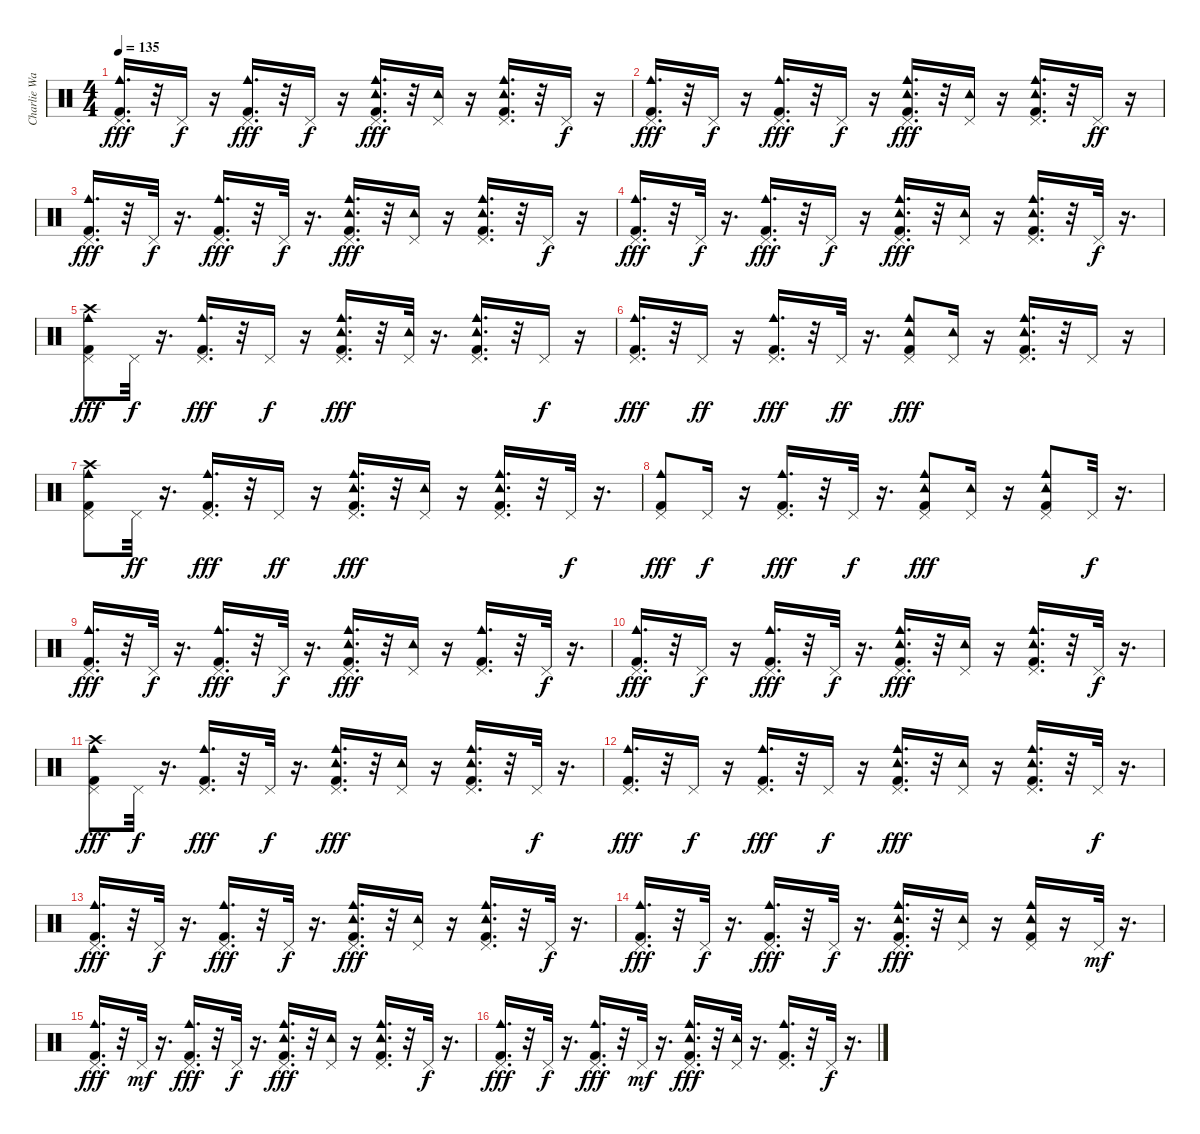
\track ("Charlie Watts - Drums" "Charlie Wa") {instrument percussion}
\staff {score}
\articulation defaults
\ts (4 4)
\tempo 135
\clef neutral
\ks c
("Kick (hit) 2" "Pedal Hi-Hat (hit)" "Cowbell medium (hit)").16{d dy fff} r.32 "Pedal Hi-Hat (hit)".16{dy f} r.16 ("Kick (hit) 2" "Pedal Hi-Hat (hit)" "Cowbell medium (hit)").16{d dy fff} r.32 "Pedal Hi-Hat (hit)".16{dy f} r.16 ("Kick (hit) 2" "Pedal Hi-Hat (hit)" "Tambourine (hit)" "Cowbell medium (hit)").16{d dy fff} r.32 ("Pedal Hi-Hat (hit)" "Tambourine (hit)").16 r.16 ("Kick (hit) 2" "Pedal Hi-Hat (hit)" "Tambourine (hit)" "Cowbell medium (hit)").16{d} r.32 "Pedal Hi-Hat (hit)".16{dy f} r.16 |
("Kick (hit) 2" "Pedal Hi-Hat (hit)" "Cowbell medium (hit)").16{d dy fff} r.32 "Pedal Hi-Hat (hit)".16{dy f} r.16 ("Kick (hit) 2" "Pedal Hi-Hat (hit)" "Cowbell medium (hit)").16{d dy fff} r.32 "Pedal Hi-Hat (hit)".16{dy f} r.16 ("Kick (hit) 2" "Pedal Hi-Hat (hit)" "Tambourine (hit)" "Cowbell medium (hit)").16{d dy fff} r.32 ("Pedal Hi-Hat (hit)" "Tambourine (hit)").16 r.16 ("Kick (hit) 2" "Pedal Hi-Hat (hit)" "Tambourine (hit)" "Cowbell medium (hit)").16{d} r.32 "Pedal Hi-Hat (hit)".16{dy ff} r.16 |
("Kick (hit) 2" "Pedal Hi-Hat (hit)" "Cowbell medium (hit)").16{d dy fff} r.32 "Pedal Hi-Hat (hit)".32{dy f} r.16{d} ("Kick (hit) 2" "Pedal Hi-Hat (hit)" "Cowbell medium (hit)").16{d dy fff} r.32 "Pedal Hi-Hat (hit)".32{dy f} r.16{d} ("Kick (hit) 2" "Pedal Hi-Hat (hit)" "Tambourine (hit)" "Cowbell medium (hit)").16{d dy fff} r.32 ("Pedal Hi-Hat (hit)" "Tambourine (hit)").16 r.16 ("Kick (hit) 2" "Pedal Hi-Hat (hit)" "Tambourine (hit)" "Cowbell medium (hit)").16{d} r.32 "Pedal Hi-Hat (hit)".16{dy f} r.16 |
("Kick (hit) 2" "Pedal Hi-Hat (hit)" "Cowbell medium (hit)").16{d dy fff} r.32 "Pedal Hi-Hat (hit)".32{dy f} r.16{d} ("Kick (hit) 2" "Pedal Hi-Hat (hit)" "Cowbell medium (hit)").16{d dy fff} r.32 "Pedal Hi-Hat (hit)".16{dy f} r.16 ("Kick (hit) 2" "Pedal Hi-Hat (hit)" "Tambourine (hit)" "Cowbell medium (hit)").16{d dy fff} r.32 ("Pedal Hi-Hat (hit)" "Tambourine (hit)").16 r.16 ("Kick (hit) 2" "Pedal Hi-Hat (hit)" "Tambourine (hit)" "Cowbell medium (hit)").16{d} r.32 "Pedal Hi-Hat (hit)".32{dy f} r.16{d} |
("Kick (hit) 2" "Pedal Hi-Hat (hit)" "Crash high (hit)" "Cowbell medium (hit)").8{dy fff} "Pedal Hi-Hat (hit)".32{dy f} r.16{d} ("Kick (hit) 2" "Pedal Hi-Hat (hit)" "Cowbell medium (hit)").16{d dy fff} r.32 "Pedal Hi-Hat (hit)".16{dy f} r.16 ("Kick (hit) 2" "Pedal Hi-Hat (hit)" "Tambourine (hit)" "Cowbell medium (hit)").16{d dy fff} r.32 ("Pedal Hi-Hat (hit)" "Tambourine (hit)").32 r.16{d} ("Kick (hit) 2" "Pedal Hi-Hat (hit)" "Tambourine (hit)" "Cowbell medium (hit)").16{d} r.32 "Pedal Hi-Hat (hit)".16{dy f} r.16 |
("Kick (hit) 2" "Pedal Hi-Hat (hit)" "Cowbell medium (hit)").16{d dy fff} r.32 "Pedal Hi-Hat (hit)".16{dy ff} r.16 ("Kick (hit) 2" "Pedal Hi-Hat (hit)" "Cowbell medium (hit)").16{d dy fff} r.32 "Pedal Hi-Hat (hit)".32{dy ff} r.16{d} ("Kick (hit) 2" "Pedal Hi-Hat (hit)" "Tambourine (hit)" "Cowbell medium (hit)").8{dy fff} ("Pedal Hi-Hat (hit)" "Tambourine (hit)").16 r.16 ("Kick (hit) 2" "Pedal Hi-Hat (hit)" "Tambourine (hit)" "Cowbell medium (hit)").16{d} r.32 "Pedal Hi-Hat (hit)".16 r.16 |
("Kick (hit) 2" "Pedal Hi-Hat (hit)" "Crash high (hit)" "Cowbell medium (hit)").8 "Pedal Hi-Hat (hit)".32{dy ff} r.16{d} ("Kick (hit) 2" "Pedal Hi-Hat (hit)" "Cowbell medium (hit)").16{d dy fff} r.32 "Pedal Hi-Hat (hit)".16{dy ff} r.16 ("Kick (hit) 2" "Pedal Hi-Hat (hit)" "Tambourine (hit)" "Cowbell medium (hit)").16{d dy fff} r.32 ("Pedal Hi-Hat (hit)" "Tambourine (hit)").16 r.16 ("Kick (hit) 2" "Pedal Hi-Hat (hit)" "Tambourine (hit)" "Cowbell medium (hit)").16{d} r.32 "Pedal Hi-Hat (hit)".32{dy f} r.16{d} |
("Kick (hit) 2" "Pedal Hi-Hat (hit)" "Cowbell medium (hit)").8{dy fff} "Pedal Hi-Hat (hit)".16{dy f} r.16 ("Kick (hit) 2" "Pedal Hi-Hat (hit)" "Cowbell medium (hit)").16{d dy fff} r.32 "Pedal Hi-Hat (hit)".32{dy f} r.16{d} ("Kick (hit) 2" "Pedal Hi-Hat (hit)" "Tambourine (hit)" "Cowbell medium (hit)").8{dy fff} ("Pedal Hi-Hat (hit)" "Tambourine (hit)").16 r.16 ("Kick (hit) 2" "Pedal Hi-Hat (hit)" "Tambourine (hit)" "Cowbell medium (hit)").8 "Pedal Hi-Hat (hit)".32{dy f} r.16{d} |
("Kick (hit) 2" "Pedal Hi-Hat (hit)" "Cowbell medium (hit)").16{d dy fff} r.32 "Pedal Hi-Hat (hit)".32{dy f} r.16{d} ("Kick (hit) 2" "Pedal Hi-Hat (hit)" "Cowbell medium (hit)").16{d dy fff} r.32 "Pedal Hi-Hat (hit)".32{dy f} r.16{d} ("Kick (hit) 2" "Pedal Hi-Hat (hit)" "Tambourine (hit)" "Cowbell medium (hit)").16{d dy fff} r.32 ("Pedal Hi-Hat (hit)" "Tambourine (hit)").16 r.16 ("Kick (hit) 2" "Pedal Hi-Hat (hit)" "Cowbell medium (hit)").16{d} r.32 "Pedal Hi-Hat (hit)".32{dy f} r.16{d} |
("Kick (hit) 2" "Pedal Hi-Hat (hit)" "Cowbell medium (hit)").16{d dy fff} r.32 "Pedal Hi-Hat (hit)".16{dy f} r.16 ("Kick (hit) 2" "Pedal Hi-Hat (hit)" "Cowbell medium (hit)").16{d dy fff} r.32 "Pedal Hi-Hat (hit)".32{dy f} r.16{d} ("Kick (hit) 2" "Pedal Hi-Hat (hit)" "Tambourine (hit)" "Cowbell medium (hit)").16{d dy fff} r.32 ("Pedal Hi-Hat (hit)" "Tambourine (hit)").16 r.16 ("Kick (hit) 2" "Pedal Hi-Hat (hit)" "Tambourine (hit)" "Cowbell medium (hit)").16{d} r.32 "Pedal Hi-Hat (hit)".32{dy f} r.16{d} |
("Kick (hit) 2" "Pedal Hi-Hat (hit)" "Crash high (hit)" "Cowbell medium (hit)").8{dy fff} "Pedal Hi-Hat (hit)".32{dy f} r.16{d} ("Kick (hit) 2" "Pedal Hi-Hat (hit)" "Cowbell medium (hit)").16{d dy fff} r.32 "Pedal Hi-Hat (hit)".32{dy f} r.16{d} ("Kick (hit) 2" "Pedal Hi-Hat (hit)" "Tambourine (hit)" "Cowbell medium (hit)").16{d dy fff} r.32 ("Pedal Hi-Hat (hit)" "Tambourine (hit)").16 r.16 ("Kick (hit) 2" "Pedal Hi-Hat (hit)" "Tambourine (hit)" "Cowbell medium (hit)").16{d} r.32 "Pedal Hi-Hat (hit)".32{dy f} r.16{d} |
("Kick (hit) 2" "Pedal Hi-Hat (hit)" "Cowbell medium (hit)").16{d dy fff} r.32 "Pedal Hi-Hat (hit)".16{dy f} r.16 ("Kick (hit) 2" "Pedal Hi-Hat (hit)" "Cowbell medium (hit)").16{d dy fff} r.32 "Pedal Hi-Hat (hit)".16{dy f} r.16 ("Kick (hit) 2" "Pedal Hi-Hat (hit)" "Tambourine (hit)" "Cowbell medium (hit)").16{d dy fff} r.32 ("Pedal Hi-Hat (hit)" "Tambourine (hit)").16 r.16 ("Kick (hit) 2" "Pedal Hi-Hat (hit)" "Tambourine (hit)" "Cowbell medium (hit)").16{d} r.32 "Pedal Hi-Hat (hit)".32{dy f} r.16{d} |
("Kick (hit) 2" "Pedal Hi-Hat (hit)" "Cowbell medium (hit)").16{d dy fff} r.32 "Pedal Hi-Hat (hit)".32{dy f} r.16{d} ("Kick (hit) 2" "Pedal Hi-Hat (hit)" "Cowbell medium (hit)").16{d dy fff} r.32 "Pedal Hi-Hat (hit)".32{dy f} r.16{d} ("Kick (hit) 2" "Pedal Hi-Hat (hit)" "Tambourine (hit)" "Cowbell medium (hit)").16{d dy fff} r.32 ("Pedal Hi-Hat (hit)" "Tambourine (hit)").16 r.16 ("Kick (hit) 2" "Pedal Hi-Hat (hit)" "Tambourine (hit)" "Cowbell medium (hit)").16{d} r.32 "Pedal Hi-Hat (hit)".32{dy f} r.16{d} |
("Kick (hit) 2" "Pedal Hi-Hat (hit)" "Cowbell medium (hit)").16{d dy fff} r.32 "Pedal Hi-Hat (hit)".32{dy f} r.16{d} ("Kick (hit) 2" "Pedal Hi-Hat (hit)" "Cowbell medium (hit)").16{d dy fff} r.32 "Pedal Hi-Hat (hit)".32{dy f} r.16{d} ("Kick (hit) 2" "Pedal Hi-Hat (hit)" "Tambourine (hit)" "Cowbell medium (hit)").16{d dy fff} r.32 ("Pedal Hi-Hat (hit)" "Tambourine (hit)").16 r.16 ("Kick (hit) 2" "Pedal Hi-Hat (hit)" "Tambourine (hit)" "Cowbell medium (hit)").16 r.16 "Pedal Hi-Hat (hit)".32{dy mf} r.16{d} |
("Kick (hit) 2" "Pedal Hi-Hat (hit)" "Cowbell medium (hit)").16{d dy fff} r.32 "Pedal Hi-Hat (hit)".32{dy mf} r.16{d} ("Kick (hit) 2" "Pedal Hi-Hat (hit)" "Cowbell medium (hit)").16{d dy fff} r.32 "Pedal Hi-Hat (hit)".32{dy f} r.16{d} ("Kick (hit) 2" "Pedal Hi-Hat (hit)" "Tambourine (hit)" "Cowbell medium (hit)").16{d dy fff} r.32 ("Pedal Hi-Hat (hit)" "Tambourine (hit)").16 r.16 ("Kick (hit) 2" "Pedal Hi-Hat (hit)" "Tambourine (hit)" "Cowbell medium (hit)").16{d} r.32 "Pedal Hi-Hat (hit)".32{dy f} r.16{d} |
("Kick (hit) 2" "Pedal Hi-Hat (hit)" "Cowbell medium (hit)").16{d dy fff} r.32 "Pedal Hi-Hat (hit)".32{dy f} r.16{d} ("Kick (hit) 2" "Pedal Hi-Hat (hit)" "Cowbell medium (hit)").16{d dy fff} r.32 "Pedal Hi-Hat (hit)".32{dy mf} r.16{d} ("Kick (hit) 2" "Pedal Hi-Hat (hit)" "Tambourine (hit)" "Cowbell medium (hit)").16{d dy fff} r.32 ("Pedal Hi-Hat (hit)" "Tambourine (hit)").32 r.16{d} ("Kick (hit) 2" "Pedal Hi-Hat (hit)" "Cowbell medium (hit)").16{d} r.32 "Pedal Hi-Hat (hit)".32{dy f} r.16{d}
